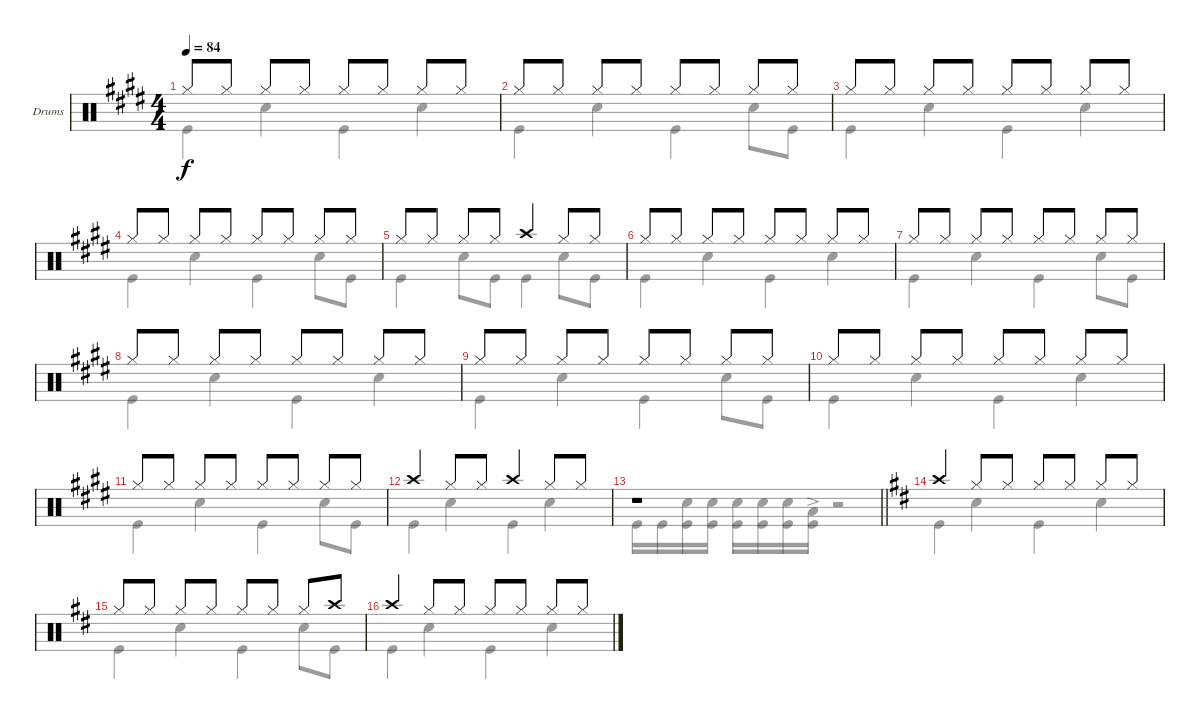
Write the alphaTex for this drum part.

\defaultSystemsLayout 4
\bracketExtendMode groupsimilarinstruments
\firstSystemTrackNameOrientation horizontal
\otherSystemsTrackNameOrientation horizontal
\track ("Drumkit" "Drums") {multiBarRest instrument percussion}
\staff {score}
\articulation defaults
\voice
\ts (4 4)
\tempo 84
\clef neutral
\ks c#minor "Hi-Hat (closed)".8{dy f} "Hi-Hat (closed)".8 "Hi-Hat (closed)".8 "Hi-Hat (closed)".8 "Hi-Hat (closed)".8 "Hi-Hat (closed)".8 "Hi-Hat (closed)".8 "Hi-Hat (closed)".8
|
"Hi-Hat (closed)".8 "Hi-Hat (closed)".8 "Hi-Hat (closed)".8 "Hi-Hat (closed)".8 "Hi-Hat (closed)".8 "Hi-Hat (closed)".8 "Hi-Hat (closed)".8 "Hi-Hat (closed)".8 |
"Hi-Hat (closed)".8 "Hi-Hat (closed)".8 "Hi-Hat (closed)".8 "Hi-Hat (closed)".8 "Hi-Hat (closed)".8 "Hi-Hat (closed)".8 "Hi-Hat (closed)".8 "Hi-Hat (closed)".8 |
"Hi-Hat (closed)".8 "Hi-Hat (closed)".8 "Hi-Hat (closed)".8 "Hi-Hat (closed)".8 "Hi-Hat (closed)".8 "Hi-Hat (closed)".8 "Hi-Hat (closed)".8 "Hi-Hat (closed)".8 |
"Hi-Hat (closed)".8 "Hi-Hat (closed)".8 "Hi-Hat (closed)".8 "Hi-Hat (closed)".8 "Crash high (hit)".4 "Hi-Hat (closed)".8 "Hi-Hat (closed)".8 |
"Hi-Hat (closed)".8 "Hi-Hat (closed)".8 "Hi-Hat (closed)".8 "Hi-Hat (closed)".8 "Hi-Hat (closed)".8 "Hi-Hat (closed)".8 "Hi-Hat (closed)".8 "Hi-Hat (closed)".8 |
"Hi-Hat (closed)".8 "Hi-Hat (closed)".8 "Hi-Hat (closed)".8 "Hi-Hat (closed)".8 "Hi-Hat (closed)".8 "Hi-Hat (closed)".8 "Hi-Hat (closed)".8 "Hi-Hat (closed)".8 |
"Hi-Hat (closed)".8 "Hi-Hat (closed)".8 "Hi-Hat (closed)".8 "Hi-Hat (closed)".8 "Hi-Hat (closed)".8 "Hi-Hat (closed)".8 "Hi-Hat (closed)".8 "Hi-Hat (closed)".8 |
"Hi-Hat (closed)".8 "Hi-Hat (closed)".8 "Hi-Hat (closed)".8 "Hi-Hat (closed)".8 "Hi-Hat (closed)".8 "Hi-Hat (closed)".8 "Hi-Hat (closed)".8 "Hi-Hat (closed)".8 |
"Hi-Hat (closed)".8 "Hi-Hat (closed)".8 "Hi-Hat (closed)".8 "Hi-Hat (closed)".8 "Hi-Hat (closed)".8 "Hi-Hat (closed)".8 "Hi-Hat (closed)".8 "Hi-Hat (closed)".8 |
"Hi-Hat (closed)".8 "Hi-Hat (closed)".8 "Hi-Hat (closed)".8 "Hi-Hat (closed)".8 "Hi-Hat (closed)".8 "Hi-Hat (closed)".8 "Hi-Hat (closed)".8 "Hi-Hat (closed)".8 |
"Crash high (hit)".4 "Hi-Hat (closed)".8 "Hi-Hat (closed)".8 "Crash high (hit)".4 "Hi-Hat (closed)".8 "Hi-Hat (closed)".8 |
\barLineRight lightlight
r.1 |
\ks bminor "Crash high (hit)".4 "Hi-Hat (closed)".8 "Hi-Hat (closed)".8 "Hi-Hat (closed)".8 "Hi-Hat (closed)".8 "Hi-Hat (closed)".8 "Hi-Hat (closed)".8
|
"Hi-Hat (closed)".8 "Hi-Hat (closed)".8 "Hi-Hat (closed)".8 "Hi-Hat (closed)".8 "Hi-Hat (closed)".8 "Hi-Hat (closed)".8 "Hi-Hat (closed)".8 "Crash high (hit)".8 |
"Crash high (hit)".4 "Hi-Hat (closed)".8 "Hi-Hat (closed)".8 "Hi-Hat (closed)".8 "Hi-Hat (closed)".8 "Hi-Hat (closed)".8 "Hi-Hat (closed)".8
\voice
\clef neutral
\ottava regular
\simile none
\ks c#minor "Kick (hit)".4{dy f} "Snare (hit) 2".4 "Kick (hit)".4 "Snare (hit) 2".4
|
"Kick (hit)".4 "Snare (hit) 2".4 "Kick (hit)".4 "Snare (hit) 2".8 "Kick (hit)".8 |
"Kick (hit)".4 "Snare (hit) 2".4 "Kick (hit)".4 "Snare (hit) 2".4 |
"Kick (hit)".4 "Snare (hit) 2".4 "Kick (hit)".4 "Snare (hit) 2".8 "Kick (hit)".8 |
"Kick (hit)".4 "Snare (hit) 2".8 "Kick (hit)".8 "Kick (hit)".4 "Snare (hit) 2".8 "Kick (hit)".8 |
"Kick (hit)".4 "Snare (hit) 2".4 "Kick (hit)".4 "Snare (hit) 2".4 |
"Kick (hit)".4 "Snare (hit) 2".4 "Kick (hit)".4 "Snare (hit) 2".8 "Kick (hit)".8 |
"Kick (hit)".4 "Snare (hit) 2".4 "Kick (hit)".4 "Snare (hit) 2".4 |
"Kick (hit)".4 "Snare (hit) 2".4 "Kick (hit)".4 "Snare (hit) 2".8 "Kick (hit)".8 |
"Kick (hit)".4 "Snare (hit) 2".4 "Kick (hit)".4 "Snare (hit) 2".4 |
"Kick (hit)".4 "Snare (hit) 2".4 "Kick (hit)".4 "Snare (hit) 2".8 "Kick (hit)".8 |
"Kick (hit)".4 "Snare (hit) 2".4 "Kick (hit)".4 "Snare (hit) 2".4 |
\barLineRight lightlight "Kick (hit)".16 "Kick (hit)".16
("Kick (hit)" "Snare (hit) 2").16 ("Kick (hit)" "Snare (hit) 2").16 ("Kick (hit)" "Snare (hit) 2").16 ("Kick (hit)" "Snare (hit) 2").16 ("Kick (hit)" "Snare (hit) 2").16 ("Kick (hit)"{ac} "Low Tom (hit)"{ac}).16 r.2 |
\ks bminor "Kick (hit)".4 "Snare (hit) 2".4 "Kick (hit)".4 "Snare (hit) 2".4
|
"Kick (hit)".4 "Snare (hit) 2".4 "Kick (hit)".4 "Snare (hit) 2".8 "Kick (hit)".8 |
"Kick (hit)".4 "Snare (hit) 2".4 "Kick (hit)".4 "Snare (hit) 2".4
